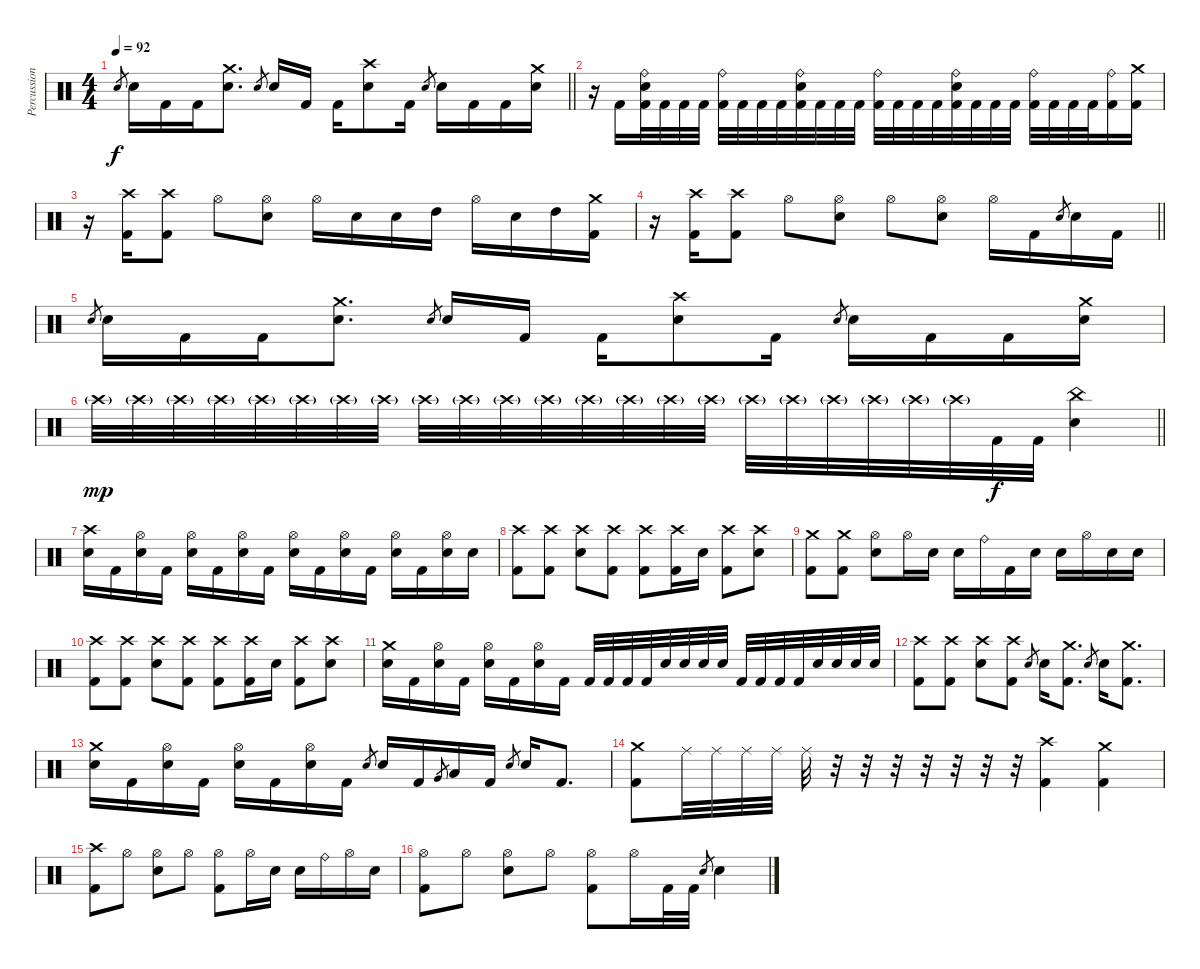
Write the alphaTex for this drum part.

\track ("Percussion (Moose)" "Percussion") {instrument percussion}
\staff {score}
\articulation defaults
\ts (4 4)
\tempo 92
\clef neutral
\barLineRight lightlight
\ks c "Electric Snare (hit)".8{gr dy f} "Electric Snare (hit)".16 "Kick (hit) 2".16 "Kick (hit) 2".16
("Crash medium (hit)" "Electric Snare (hit)").8{d} "Electric Snare (hit)".8{gr} "Electric Snare (hit)".16 "Kick (hit) 2".16 "Kick (hit) 2".16 ("Crash high (hit)" "Electric Snare (hit)").8 "Kick (hit) 2".16 "Electric Snare (hit)".8{gr} "Electric Snare (hit)".16 "Kick (hit) 2".16 "Kick (hit) 2".16 ("Crash medium (hit)" "Electric Snare (hit)").16 |
r.16 "Kick (hit) 2".16 ("Ride (bell)" "Electric Snare (hit)" "Kick (hit) 2").32 "Kick (hit) 2".32 "Kick (hit) 2".32 "Kick (hit) 2".32 ("Ride (bell)" "Kick (hit) 2").32 "Kick (hit) 2".32 "Kick (hit) 2".32 "Kick (hit) 2".32 ("Ride (bell)" "Electric Snare (hit)" "Kick (hit) 2").32 "Kick (hit) 2".32 "Kick (hit) 2".32 "Kick (hit) 2".32 ("Ride (bell)" "Kick (hit) 2").32 "Kick (hit) 2".32 "Kick (hit) 2".32 "Kick (hit) 2".32 ("Ride (bell)" "Electric Snare (hit)" "Kick (hit) 2").32 "Kick (hit) 2".32 "Kick (hit) 2".32 "Kick (hit) 2".32 ("Ride (bell)" "Kick (hit) 2").32 "Kick (hit) 2".32 "Kick (hit) 2".32 "Kick (hit) 2".32 ("Ride (bell)" "Kick (hit) 2").16 ("Crash medium (hit)" "Kick (hit) 2").16 |
r.16 ("Crash high (hit)" "Kick (hit) 2").16 ("Crash high (hit)" "Kick (hit) 2").8 "Hi-Hat (open)".8 ("Hi-Hat (open)" "Electric Snare (hit)").8 "Hi-Hat (open)".16 "Electric Snare (hit)".16 "Electric Snare (hit)".16 "High Tom (hit)".16 "Hi-Hat (open)".16 "Electric Snare (hit)".16 "High Tom (hit)".16 ("Crash medium (hit)" "Kick (hit) 2").16 |
\barLineRight lightlight
r.16 ("Crash high (hit)" "Kick (hit) 2").16 ("Crash high (hit)" "Kick (hit) 2").8 "Hi-Hat (open)".8 ("Hi-Hat (open)" "Electric Snare (hit)").8 "Hi-Hat (open)".8 ("Hi-Hat (open)" "Electric Snare (hit)").8 "Hi-Hat (open)".16 "Kick (hit) 2".16 "Electric Snare (hit)".8{gr} "Electric Snare (hit)".16 "Kick (hit) 2".16 |
"Electric Snare (hit)".8{gr} "Electric Snare (hit)".16 "Kick (hit) 2".16 "Kick (hit) 2".16 ("Crash medium (hit)" "Electric Snare (hit)").8{d} "Electric Snare (hit)".8{gr} "Electric Snare (hit)".16 "Kick (hit) 2".16 "Kick (hit) 2".16 ("Crash high (hit)" "Electric Snare (hit)").8 "Kick (hit) 2".16 "Electric Snare (hit)".8{gr} "Electric Snare (hit)".16 "Kick (hit) 2".16 "Kick (hit) 2".16 ("Crash medium (hit)" "Electric Snare (hit)").16 |
\barLineRight lightlight "Crash high (hit)"{g}.32{dy mp} "Crash high (hit)"{g}.32 "Crash high (hit)"{g}.32 "Crash high (hit)"{g}.32 "Crash high (hit)"{g}.32 "Crash high (hit)"{g}.32 "Crash high (hit)"{g}.32 "Crash high (hit)"{g}.32 "Crash high (hit)"{g}.32 "Crash high (hit)"{g}.32 "Crash high (hit)"{g}.32 "Crash high (hit)"{g}.32 "Crash high (hit)"{g}.32 "Crash high (hit)"{g}.32 "Crash high (hit)"{g}.32 "Crash high (hit)"{g}.32 "Crash high (hit)"{g}.32 "Crash high (hit)"{g}.32 "Crash high (hit)"{g}.32 "Crash high (hit)"{g}.32 "Crash high (hit)"{g}.32 "Crash high (hit)"{g}.32 "Kick (hit) 2".32{dy f} "Kick (hit) 2".32
("China (hit)" "Electric Snare (hit)").4 |
("Crash high (hit)" "Electric Snare (hit)").16 "Kick (hit) 2".16 ("Hi-Hat (open)" "Electric Snare (hit)").16 "Kick (hit) 2".16 ("Hi-Hat (open)" "Electric Snare (hit)").16 "Kick (hit) 2".16 ("Hi-Hat (open)" "Electric Snare (hit)").16 "Kick (hit) 2".16 ("Hi-Hat (open)" "Electric Snare (hit)").16 "Kick (hit) 2".16 ("Hi-Hat (open)" "Electric Snare (hit)").16 "Kick (hit) 2".16 ("Hi-Hat (open)" "Electric Snare (hit)").16 "Kick (hit) 2".16 ("Hi-Hat (open)" "Electric Snare (hit)").16 "Electric Snare (hit)".16 |
("Crash high (hit)" "Kick (hit) 2").8 ("Crash high (hit)" "Kick (hit) 2").8 ("Crash high (hit)" "Electric Snare (hit)").8 ("Crash high (hit)" "Kick (hit) 2").8 ("Crash high (hit)" "Kick (hit) 2").8 ("Crash high (hit)" "Kick (hit) 2").16 "Electric Snare (hit)".16 ("Crash high (hit)" "Kick (hit) 2").8 ("Crash high (hit)" "Electric Snare (hit)").8 |
("Crash medium (hit)" "Kick (hit) 2").8 ("Crash medium (hit)" "Kick (hit) 2").8 ("Hi-Hat (open)" "Electric Snare (hit)").8 "Hi-Hat (open)".16 "Electric Snare (hit)".16 "Electric Snare (hit)".16 "Ride (bell)".16 "Kick (hit) 2".16 "Electric Snare (hit)".16 "Electric Snare (hit)".16 "Hi-Hat (open)".16 "Electric Snare (hit)".16 "Electric Snare (hit)".16 |
("Crash high (hit)" "Kick (hit) 2").8 ("Crash high (hit)" "Kick (hit) 2").8 ("Crash high (hit)" "Electric Snare (hit)").8 ("Crash high (hit)" "Kick (hit) 2").8 ("Crash high (hit)" "Kick (hit) 2").8 ("Crash high (hit)" "Kick (hit) 2").16 "Electric Snare (hit)".16 ("Crash high (hit)" "Kick (hit) 2").8 ("Crash high (hit)" "Electric Snare (hit)").8 |
("Crash medium (hit)" "Electric Snare (hit)").16 "Kick (hit) 2".16 ("Hi-Hat (open)" "Electric Snare (hit)").16 "Kick (hit) 2".16 ("Hi-Hat (open)" "Electric Snare (hit)").16 "Kick (hit) 2".16 ("Hi-Hat (open)" "Electric Snare (hit)").16 "Kick (hit) 2".16 "Kick (hit) 2".32 "Kick (hit) 2".32 "Kick (hit) 2".32 "Kick (hit) 2".32 "Electric Snare (hit)".32 "Electric Snare (hit)".32 "Electric Snare (hit)".32 "Electric Snare (hit)".32 "Kick (hit) 2".32 "Kick (hit) 2".32 "Kick (hit) 2".32 "Kick (hit) 2".32 "Electric Snare (hit)".32 "Electric Snare (hit)".32 "Electric Snare (hit)".32 "Electric Snare (hit)".32 |
("Crash high (hit)" "Kick (hit) 2").8 ("Crash high (hit)" "Kick (hit) 2").8 ("Crash high (hit)" "Electric Snare (hit)").8 ("Crash high (hit)" "Kick (hit) 2").8 "Electric Snare (hit)".8{gr} "Electric Snare (hit)".16 ("Crash medium (hit)" "Kick (hit) 2").8{d} "Electric Snare (hit)".8{gr} "Electric Snare (hit)".16 ("Crash medium (hit)" "Kick (hit) 2").8{d} |
("Crash medium (hit)" "Electric Snare (hit)").16 "Kick (hit) 2".16 ("Hi-Hat (open)" "Electric Snare (hit)").16 "Kick (hit) 2".16 ("Hi-Hat (open)" "Electric Snare (hit)").16 "Kick (hit) 2".16 ("Hi-Hat (open)" "Electric Snare (hit)").16 "Kick (hit) 2".16 "Electric Snare (hit)".8{gr} "Electric Snare (hit)".16 "Kick (hit) 2".16 "Very Low Tom (hit)".8{gr} "Low Floor Tom (hit)".16 "Kick (hit) 2".16 "Electric Snare (hit)".8{gr} "Electric Snare (hit)".16 "Kick (hit) 2".8{d} |
("Crash medium (hit)" "Kick (hit) 2").8 "Ride (middle)".32 "Ride (middle)".32 "Ride (middle)".32 "Ride (middle)".32 "Ride (middle)".32 r.32 r.32 r.32 r.32 r.32 r.32 r.32 ("Crash high (hit)" "Kick (hit) 2").4 ("Crash medium (hit)" "Kick (hit) 2").4 |
("Crash high (hit)" "Kick (hit) 2").8 "Hi-Hat (open)".8 ("Hi-Hat (open)" "Electric Snare (hit)").8 "Hi-Hat (open)".8 ("Hi-Hat (open)" "Kick (hit) 2").8 "Hi-Hat (open)".16 "Electric Snare (hit)".16 "Electric Snare (hit)".16 "Ride (bell)".16 "Hi-Hat (open)".16 "Electric Snare (hit)".16 |
("Hi-Hat (open)" "Kick (hit) 2").8 "Hi-Hat (open)".8 ("Hi-Hat (open)" "Electric Snare (hit)").8 "Hi-Hat (open)".8 ("Hi-Hat (open)" "Kick (hit) 2").8 "Hi-Hat (open)".16 "Kick (hit) 2".32 "Kick (hit) 2".32 "Electric Snare (hit)".8{gr} "Electric Snare (hit)".4
